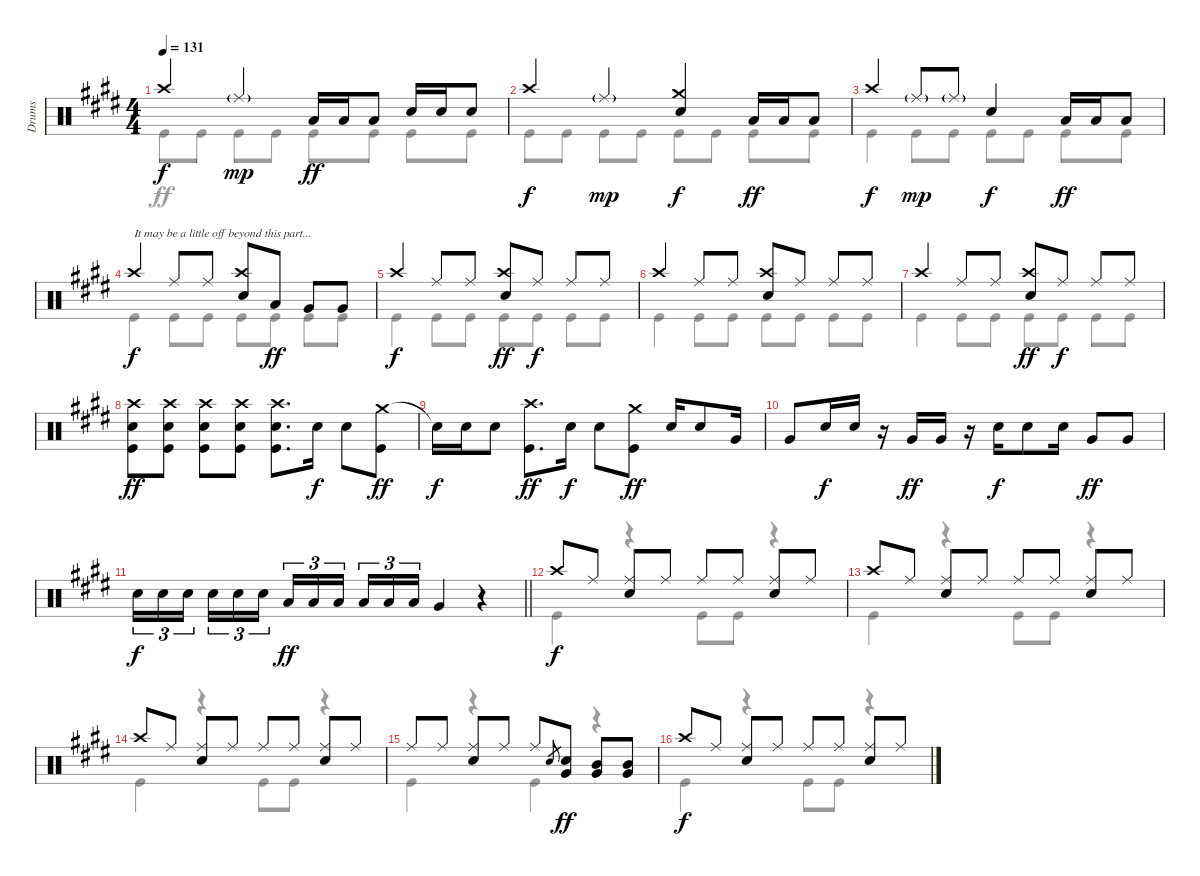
\track ("Drums" "Drums") {instrument percussion}
\staff {score}
\articulation defaults
\voice
\ts (4 4)
\tempo 131
\clef neutral
\ks c#minor "Crash high (hit)".4{dy f} "Ride (middle)"{g}.4{dy mp} "Low Tom (hit)".16{dy ff} "Low Tom (hit)".16 "Low Tom (hit)".8 "Electric Snare (hit)".16 "Electric Snare (hit)".16 "Electric Snare (hit)".8
|
"Crash high (hit)".4{dy f} "Ride (middle)"{g}.4{dy mp} ("Crash medium (hit)" "Electric Snare (hit)").4{dy f} "Low Tom (hit)".16{dy ff} "Low Tom (hit)".16 "Low Tom (hit)".8 |
"Crash high (hit)".4{dy f} "Ride (middle)"{g}.8{dy mp} "Ride (middle)"{g}.8 "Electric Snare (hit)".4{dy f} "Low Tom (hit)".16{dy ff} "Low Tom (hit)".16 "Low Tom (hit)".8 |
"Crash high (hit)".4{txt "It may be a little off beyond this part..." dy f} "Ride (middle)".8 "Ride (middle)".8 ("Crash high (hit)" "Electric Snare (hit)").8 "Low Tom (hit)".8{dy ff} "Very Low Tom (hit)".8 "Very Low Tom (hit)".8 |
"Crash high (hit)".4{dy f} "Ride (middle)".8 "Ride (middle)".8 ("Crash high (hit)" "Electric Snare (hit)").8{dy ff} "Ride (middle)".8{dy f} "Ride (middle)".8 "Ride (middle)".8 |
"Crash high (hit)".4 "Ride (middle)".8 "Ride (middle)".8 ("Crash high (hit)" "Electric Snare (hit)").8 "Ride (middle)".8 "Ride (middle)".8 "Ride (middle)".8 |
"Crash high (hit)".4 "Ride (middle)".8 "Ride (middle)".8 ("Crash high (hit)" "Electric Snare (hit)").8{dy ff} "Ride (middle)".8{dy f} "Ride (middle)".8 "Ride (middle)".8 |
("Crash high (hit)" "Electric Snare (hit)" "Kick (hit)").8{dy ff} ("Crash high (hit)" "Electric Snare (hit)" "Kick (hit)").8 ("Crash high (hit)" "Electric Snare (hit)" "Kick (hit)").8 ("Crash high (hit)" "Electric Snare (hit)" "Kick (hit)").8 ("Crash high (hit)" "Electric Snare (hit)" "Kick (hit)").8{d} "Electric Snare (hit)".16{dy f} "Electric Snare (hit)".8 ("Crash medium (hit)" "Kick (hit)").8{dy ff} |
"Snare (hit)"{t}.16{dy f} "Electric Snare (hit)".16 "Electric Snare (hit)".8 ("Crash high (hit)" "Kick (hit)").8{d dy ff} "Electric Snare (hit)".16{dy f} "Electric Snare (hit)".8 ("Crash medium (hit)" "Kick (hit)").8{dy ff} "Electric Snare (hit)".16 "Electric Snare (hit)".8 "Very Low Tom (hit)".16 |
"Very Low Tom (hit)".8 "Electric Snare (hit)".16{dy f} "Electric Snare (hit)".16 r.16 "Very Low Tom (hit)".16{dy ff} "Very Low Tom (hit)".16 r.16 "Electric Snare (hit)".16{dy f} "Electric Snare (hit)".8 "Electric Snare (hit)".16 "Very Low Tom (hit)".8{dy ff} "Very Low Tom (hit)".8 |
\barLineRight lightlight "Electric Snare (hit)".16{tu (3 2) dy f} "Electric Snare (hit)".16{tu (3 2)} "Electric Snare (hit)".16{tu (3 2) beam splitsecondary} "Electric Snare (hit)".16{tu (3 2)} "Electric Snare (hit)".16{tu (3 2)} "Electric Snare (hit)".16{tu (3 2)} "Low Tom (hit)".16{tu (3 2) dy ff} "Low Tom (hit)".16{tu (3 2)} "Low Tom (hit)".16{tu (3 2) beam splitsecondary} "Low Tom (hit)".16{tu (3 2)} "Low Tom (hit)".16{tu (3 2)} "Low Tom (hit)".16{tu (3 2)} "Very Low Tom (hit)".4
r.4 |
"Crash high (hit)".8{dy f} "Ride (middle)".8 ("Ride (middle)" "Electric Snare (hit)").8 "Ride (middle)".8 "Ride (middle)".8 "Ride (middle)".8 ("Ride (middle)" "Electric Snare (hit)").8 "Ride (middle)".8 |
"Crash high (hit)".8 "Ride (middle)".8 ("Ride (middle)" "Electric Snare (hit)").8 "Ride (middle)".8 "Ride (middle)".8 "Ride (middle)".8 ("Ride (middle)" "Electric Snare (hit)").8 "Ride (middle)".8 |
"Crash high (hit)".8 "Ride (middle)".8 ("Ride (middle)" "Electric Snare (hit)").8 "Ride (middle)".8 "Ride (middle)".8 "Ride (middle)".8 ("Ride (middle)" "Electric Snare (hit)").8 "Ride (middle)".8 |
"Ride (middle)".8 "Ride (middle)".8 ("Ride (middle)" "Electric Snare (hit)").8 "Ride (middle)".8 "Ride (middle)".8 "Electric Snare (hit)".8{gr} ("Electric Snare (hit)" "Very Low Tom (hit)").8{dy ff} ("Mid Tom (hit)" "Very Low Tom (hit)").8 ("Mid Tom (hit)" "Very Low Tom (hit)").8 |
"Crash high (hit)".8{dy f} "Ride (middle)".8 ("Ride (middle)" "Electric Snare (hit)").8 "Ride (middle)".8 "Ride (middle)".8 "Ride (middle)".8 ("Ride (middle)" "Electric Snare (hit)").8 "Ride (middle)".8
\voice
\clef neutral
\ottava regular
\simile none
\ks c#minor "Kick (hit)".8{dy ff} "Kick (hit)".8 "Kick (hit)".8 "Kick (hit)".8 "Kick (hit)".8 "Kick (hit)".8 "Kick (hit)".8 "Kick (hit)".8
|
"Kick (hit)".8 "Kick (hit)".8 "Kick (hit)".8 "Kick (hit)".8 "Kick (hit)".8 "Kick (hit)".8 "Kick (hit)".8 "Kick (hit)".8 |
"Kick (hit)".4 "Kick (hit)".8 "Kick (hit)".8 "Kick (hit)".8 "Kick (hit)".8 "Kick (hit)".8 "Kick (hit)".8 |
"Kick (hit)".4 "Kick (hit)".8 "Kick (hit)".8 "Kick (hit)".8 "Kick (hit)".8 "Kick (hit)".8 "Kick (hit)".8 |
"Kick (hit)".4 "Kick (hit)".8 "Kick (hit)".8 "Kick (hit)".8 "Kick (hit)".8 "Kick (hit)".8 "Kick (hit)".8 |
"Kick (hit)".4 "Kick (hit)".8 "Kick (hit)".8 "Kick (hit)".8 "Kick (hit)".8 "Kick (hit)".8 "Kick (hit)".8 |
"Kick (hit)".4 "Kick (hit)".8 "Kick (hit)".8 "Kick (hit)".8 "Kick (hit)".8 "Kick (hit)".8 "Kick (hit)".8 |
|
|
|
\barLineRight lightlight
|
"Kick (hit)".4 r.4 "Kick (hit)".8 "Kick (hit)".8 r.4 |
"Kick (hit)".4 r.4 "Kick (hit)".8 "Kick (hit)".8 r.4 |
"Kick (hit)".4 r.4 "Kick (hit)".8 "Kick (hit)".8 r.4 |
"Kick (hit)".4 r.4 "Kick (hit)".4 r.4 |
"Kick (hit)".4 r.4 "Kick (hit)".8 "Kick (hit)".8 r.4
